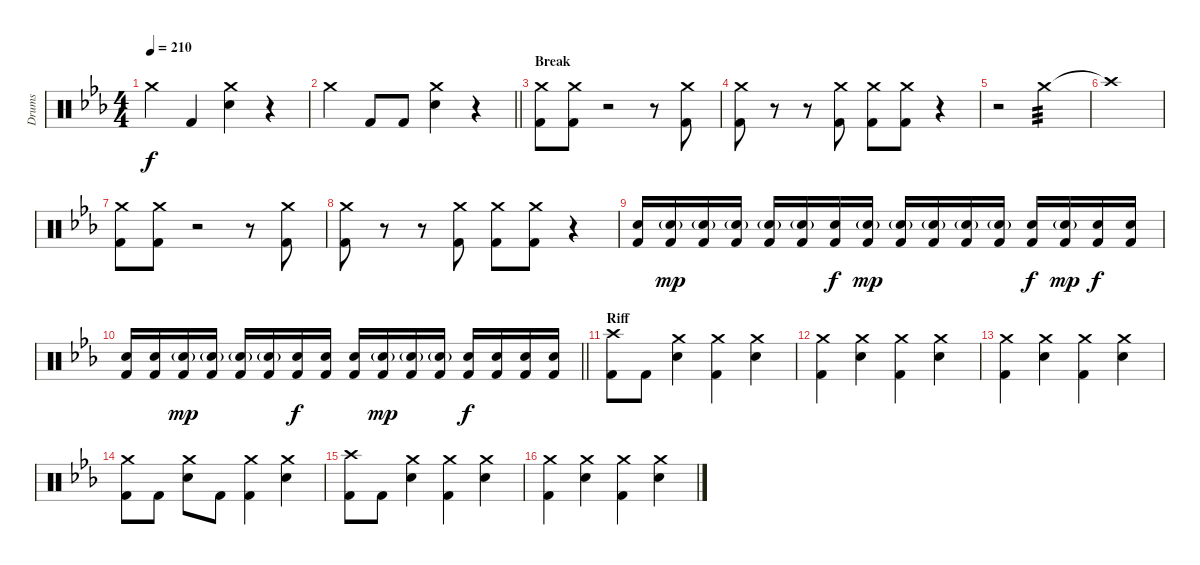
\track ("Drums" "Drums") {instrument percussion}
\staff {score}
\articulation defaults
\ts (4 4)
\tempo 210
\clef neutral
\ks cminor "Crash medium (hit)".4{dy f} "Kick (hit) 2".4
("Crash medium (hit)" "Electric Snare (hit)").4 r.4 |
\barLineRight lightlight "Crash medium (hit)".4 "Kick (hit) 2".8 "Kick (hit) 2".8
("Crash medium (hit)" "Electric Snare (hit)").4 r.4 |
\section ("" "Break")
("Crash medium (hit)" "Kick (hit) 2").8 ("Crash medium (hit)" "Kick (hit) 2").8 r.2 r.8 ("Crash medium (hit)" "Kick (hit) 2").8 |
("Crash medium (hit)" "Kick (hit) 2").8 r.8 r.8 ("Crash medium (hit)" "Kick (hit) 2").8 ("Crash medium (hit)" "Kick (hit) 2").8 ("Crash medium (hit)" "Kick (hit) 2").8 r.4 |
r.2 "Crash medium (hit)".2{tp 3} |
"Crash high (hit)"{t}.1 |
("Crash medium (hit)" "Kick (hit) 2").8 ("Crash medium (hit)" "Kick (hit) 2").8 r.2 r.8 ("Crash medium (hit)" "Kick (hit) 2").8 |
("Crash medium (hit)" "Kick (hit) 2").8 r.8 r.8 ("Crash medium (hit)" "Kick (hit) 2").8 ("Crash medium (hit)" "Kick (hit) 2").8 ("Crash medium (hit)" "Kick (hit) 2").8 r.4 |
("Electric Snare (hit)" "Kick (hit) 2").16 ("Electric Snare (hit)"{g} "Kick (hit) 2").16{dy mp} ("Electric Snare (hit)"{g} "Kick (hit) 2").16 ("Electric Snare (hit)"{g} "Kick (hit) 2").16 ("Electric Snare (hit)"{g} "Kick (hit) 2").16 ("Electric Snare (hit)"{g} "Kick (hit) 2").16 ("Electric Snare (hit)" "Kick (hit) 2").16{dy f} ("Electric Snare (hit)"{g} "Kick (hit) 2").16{dy mp} ("Electric Snare (hit)"{g} "Kick (hit) 2").16 ("Electric Snare (hit)"{g} "Kick (hit) 2").16 ("Electric Snare (hit)"{g} "Kick (hit) 2").16 ("Electric Snare (hit)"{g} "Kick (hit) 2").16 ("Electric Snare (hit)" "Kick (hit) 2").16{dy f} ("Electric Snare (hit)"{g} "Kick (hit) 2").16{dy mp} ("Electric Snare (hit)" "Kick (hit) 2").16{dy f} ("Electric Snare (hit)" "Kick (hit) 2").16 |
\barLineRight lightlight
("Electric Snare (hit)" "Kick (hit) 2").16 ("Electric Snare (hit)" "Kick (hit) 2").16 ("Electric Snare (hit)"{g} "Kick (hit) 2").16{dy mp} ("Electric Snare (hit)"{g} "Kick (hit) 2").16 ("Electric Snare (hit)"{g} "Kick (hit) 2").16 ("Electric Snare (hit)"{g} "Kick (hit) 2").16 ("Electric Snare (hit)" "Kick (hit) 2").16{dy f} ("Electric Snare (hit)" "Kick (hit) 2").16 ("Electric Snare (hit)" "Kick (hit) 2").16 ("Electric Snare (hit)"{g} "Kick (hit) 2").16{dy mp} ("Electric Snare (hit)"{g} "Kick (hit) 2").16 ("Electric Snare (hit)"{g} "Kick (hit) 2").16 ("Electric Snare (hit)" "Kick (hit) 2").16{dy f} ("Electric Snare (hit)" "Kick (hit) 2").16 ("Electric Snare (hit)" "Kick (hit) 2").16 ("Electric Snare (hit)" "Kick (hit) 2").16 |
\section ("" "Riff")
("Crash high (hit)" "Kick (hit) 2").8 "Kick (hit) 2".8 ("Crash medium (hit)" "Electric Snare (hit)").4 ("Crash medium (hit)" "Kick (hit) 2").4 ("Crash medium (hit)" "Electric Snare (hit)").4 |
("Crash medium (hit)" "Kick (hit) 2").4 ("Crash medium (hit)" "Electric Snare (hit)").4 ("Crash medium (hit)" "Kick (hit) 2").4 ("Crash medium (hit)" "Electric Snare (hit)").4 |
("Crash medium (hit)" "Kick (hit) 2").4 ("Crash medium (hit)" "Electric Snare (hit)").4 ("Crash medium (hit)" "Kick (hit) 2").4 ("Crash medium (hit)" "Electric Snare (hit)").4 |
("Crash medium (hit)" "Kick (hit) 2").8 "Kick (hit) 2".8 ("Crash medium (hit)" "Electric Snare (hit)").8 "Kick (hit) 2".8 ("Crash medium (hit)" "Kick (hit) 2").4 ("Crash medium (hit)" "Electric Snare (hit)").4 |
("Crash high (hit)" "Kick (hit) 2").8 "Kick (hit) 2".8 ("Crash medium (hit)" "Electric Snare (hit)").4 ("Crash medium (hit)" "Kick (hit) 2").4 ("Crash medium (hit)" "Electric Snare (hit)").4 |
("Crash medium (hit)" "Kick (hit) 2").4 ("Crash medium (hit)" "Electric Snare (hit)").4 ("Crash medium (hit)" "Kick (hit) 2").4 ("Crash medium (hit)" "Electric Snare (hit)").4
